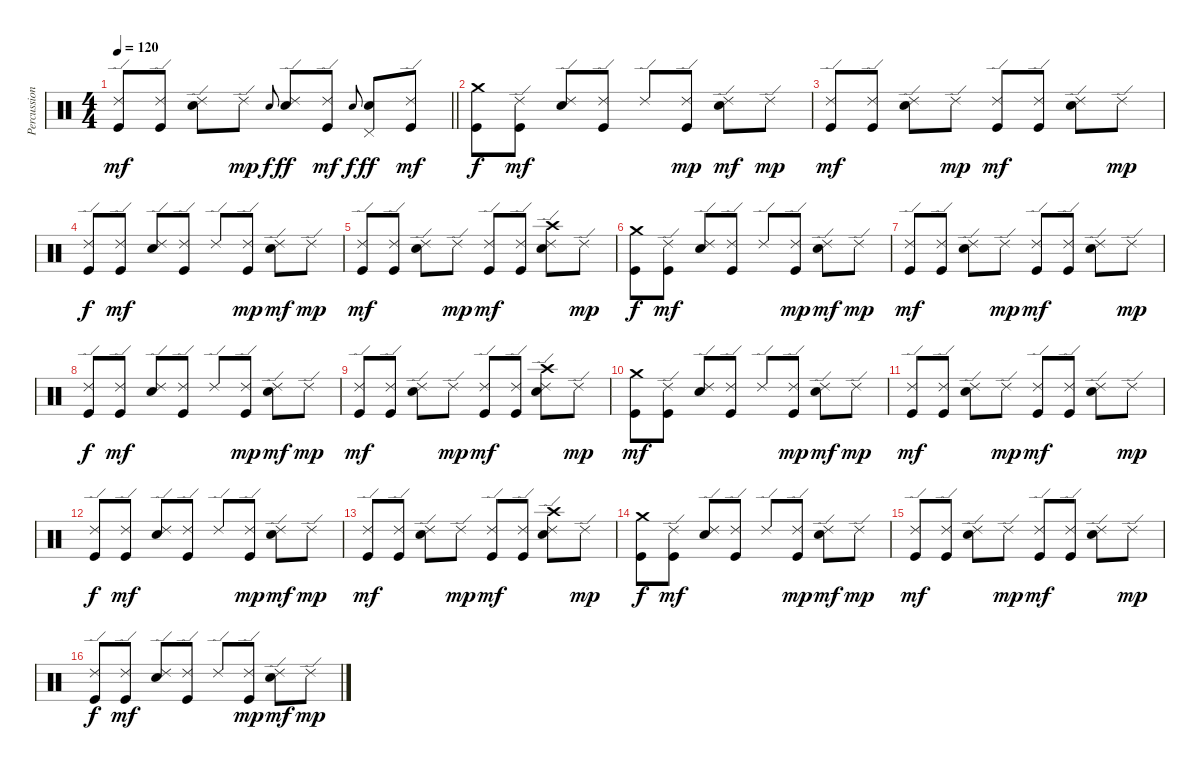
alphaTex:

\track ("Percussion" "Percussion") {instrument percussion}
\staff {score}
\articulation defaults
\ts (4 4)
\tempo 120
\clef neutral
\barLineRight lightlight
\ks c
("Ride (edge) 2" "Kick (hit)").8{dy mf} ("Ride (edge) 2" "Kick (hit)").8 ("Ride (edge) 2" "Electric Snare (hit)").8 "Ride (edge) 2".8{dy mp} "Electric Snare (hit)".8{gr onbeat dy f} ("Ride (edge) 2" "Electric Snare (hit)").8{dy ff} ("Ride (edge) 2" "Kick (hit)").8{dy mf} "Electric Snare (hit)".8{gr onbeat dy f} ("Pedal Hi-Hat (hit)" "Electric Snare (hit)").8{dy ff} ("Ride (edge) 2" "Kick (hit)").8{dy mf} |
("Crash medium (hit)" "Kick (hit)").8{dy f} ("Ride (edge) 2" "Kick (hit)").8{dy mf} ("Ride (edge) 2" "Electric Snare (hit)").8 ("Ride (edge) 2" "Kick (hit)").8 "Ride (edge) 2".8 ("Ride (edge) 2" "Kick (hit)").8{dy mp} ("Ride (edge) 2" "Electric Snare (hit)").8{dy mf} "Ride (edge) 2".8{dy mp} |
("Ride (edge) 2" "Kick (hit)").8{dy mf} ("Ride (edge) 2" "Kick (hit)").8 ("Ride (edge) 2" "Electric Snare (hit)").8 "Ride (edge) 2".8{dy mp} ("Ride (edge) 2" "Kick (hit)").8{dy mf} ("Ride (edge) 2" "Kick (hit)").8 ("Ride (edge) 2" "Electric Snare (hit)").8 "Ride (edge) 2".8{dy mp} |
("Ride (edge) 2" "Kick (hit)").8{dy f} ("Ride (edge) 2" "Kick (hit)").8{dy mf} ("Ride (edge) 2" "Electric Snare (hit)").8 ("Ride (edge) 2" "Kick (hit)").8 "Ride (edge) 2".8 ("Ride (edge) 2" "Kick (hit)").8{dy mp} ("Ride (edge) 2" "Electric Snare (hit)").8{dy mf} "Ride (edge) 2".8{dy mp} |
("Ride (edge) 2" "Kick (hit)").8{dy mf} ("Ride (edge) 2" "Kick (hit)").8 ("Ride (edge) 2" "Electric Snare (hit)").8 "Ride (edge) 2".8{dy mp} ("Ride (edge) 2" "Kick (hit)").8{dy mf} ("Ride (edge) 2" "Kick (hit)").8 ("Ride (edge) 2" "Crash high (hit)" "Electric Snare (hit)").8 "Ride (edge) 2".8{dy mp} |
("Crash medium (hit)" "Kick (hit)").8{dy f} ("Ride (edge) 2" "Kick (hit)").8{dy mf} ("Ride (edge) 2" "Electric Snare (hit)").8 ("Ride (edge) 2" "Kick (hit)").8 "Ride (edge) 2".8 ("Ride (edge) 2" "Kick (hit)").8{dy mp} ("Ride (edge) 2" "Electric Snare (hit)").8{dy mf} "Ride (edge) 2".8{dy mp} |
("Ride (edge) 2" "Kick (hit)").8{dy mf} ("Ride (edge) 2" "Kick (hit)").8 ("Ride (edge) 2" "Electric Snare (hit)").8 "Ride (edge) 2".8{dy mp} ("Ride (edge) 2" "Kick (hit)").8{dy mf} ("Ride (edge) 2" "Kick (hit)").8 ("Ride (edge) 2" "Electric Snare (hit)").8 "Ride (edge) 2".8{dy mp} |
("Ride (edge) 2" "Kick (hit)").8{dy f} ("Ride (edge) 2" "Kick (hit)").8{dy mf} ("Ride (edge) 2" "Electric Snare (hit)").8 ("Ride (edge) 2" "Kick (hit)").8 "Ride (edge) 2".8 ("Ride (edge) 2" "Kick (hit)").8{dy mp} ("Ride (edge) 2" "Electric Snare (hit)").8{dy mf} "Ride (edge) 2".8{dy mp} |
("Ride (edge) 2" "Kick (hit)").8{dy mf} ("Ride (edge) 2" "Kick (hit)").8 ("Ride (edge) 2" "Electric Snare (hit)").8 "Ride (edge) 2".8{dy mp} ("Ride (edge) 2" "Kick (hit)").8{dy mf} ("Ride (edge) 2" "Kick (hit)").8 ("Ride (edge) 2" "Crash high (hit)" "Electric Snare (hit)").8 "Ride (edge) 2".8{dy mp} |
("Crash medium (hit)" "Kick (hit)").8{dy mf} ("Ride (edge) 2" "Kick (hit)").8 ("Ride (edge) 2" "Electric Snare (hit)").8 ("Ride (edge) 2" "Kick (hit)").8 "Ride (edge) 2".8 ("Ride (edge) 2" "Kick (hit)").8{dy mp} ("Ride (edge) 2" "Electric Snare (hit)").8{dy mf} "Ride (edge) 2".8{dy mp} |
("Ride (edge) 2" "Kick (hit)").8{dy mf} ("Ride (edge) 2" "Kick (hit)").8 ("Ride (edge) 2" "Electric Snare (hit)").8 "Ride (edge) 2".8{dy mp} ("Ride (edge) 2" "Kick (hit)").8{dy mf} ("Ride (edge) 2" "Kick (hit)").8 ("Ride (edge) 2" "Electric Snare (hit)").8 "Ride (edge) 2".8{dy mp} |
("Ride (edge) 2" "Kick (hit)").8{dy f} ("Ride (edge) 2" "Kick (hit)").8{dy mf} ("Ride (edge) 2" "Electric Snare (hit)").8 ("Ride (edge) 2" "Kick (hit)").8 "Ride (edge) 2".8 ("Ride (edge) 2" "Kick (hit)").8{dy mp} ("Ride (edge) 2" "Electric Snare (hit)").8{dy mf} "Ride (edge) 2".8{dy mp} |
("Ride (edge) 2" "Kick (hit)").8{dy mf} ("Ride (edge) 2" "Kick (hit)").8 ("Ride (edge) 2" "Electric Snare (hit)").8 "Ride (edge) 2".8{dy mp} ("Ride (edge) 2" "Kick (hit)").8{dy mf} ("Ride (edge) 2" "Kick (hit)").8 ("Ride (edge) 2" "Crash high (hit)" "Electric Snare (hit)").8 "Ride (edge) 2".8{dy mp} |
("Crash medium (hit)" "Kick (hit)").8{dy f} ("Ride (edge) 2" "Kick (hit)").8{dy mf} ("Ride (edge) 2" "Electric Snare (hit)").8 ("Ride (edge) 2" "Kick (hit)").8 "Ride (edge) 2".8 ("Ride (edge) 2" "Kick (hit)").8{dy mp} ("Ride (edge) 2" "Electric Snare (hit)").8{dy mf} "Ride (edge) 2".8{dy mp} |
("Ride (edge) 2" "Kick (hit)").8{dy mf} ("Ride (edge) 2" "Kick (hit)").8 ("Ride (edge) 2" "Electric Snare (hit)").8 "Ride (edge) 2".8{dy mp} ("Ride (edge) 2" "Kick (hit)").8{dy mf} ("Ride (edge) 2" "Kick (hit)").8 ("Ride (edge) 2" "Electric Snare (hit)").8 "Ride (edge) 2".8{dy mp} |
("Ride (edge) 2" "Kick (hit)").8{dy f} ("Ride (edge) 2" "Kick (hit)").8{dy mf} ("Ride (edge) 2" "Electric Snare (hit)").8 ("Ride (edge) 2" "Kick (hit)").8 "Ride (edge) 2".8 ("Ride (edge) 2" "Kick (hit)").8{dy mp} ("Ride (edge) 2" "Electric Snare (hit)").8{dy mf} "Ride (edge) 2".8{dy mp}
